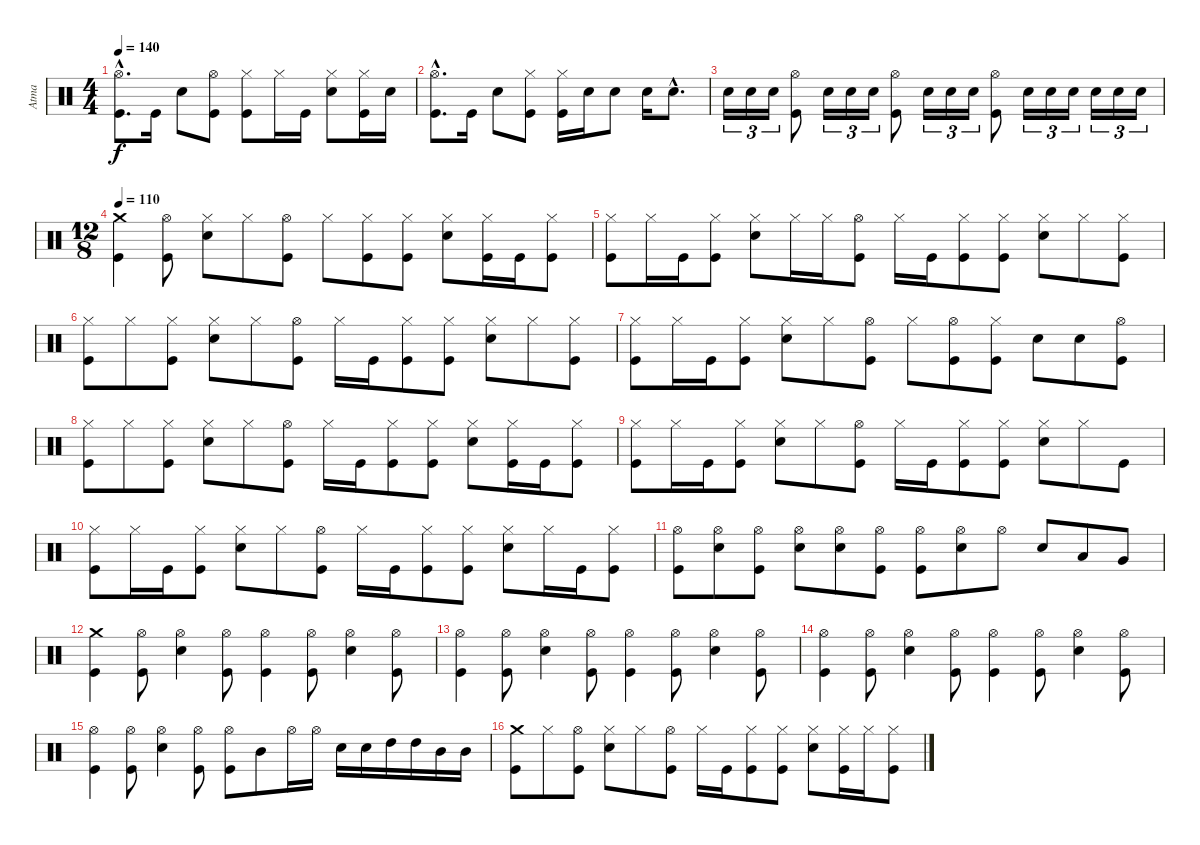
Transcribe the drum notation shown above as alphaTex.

\track ("Atma" "Atma") {instrument percussion}
\staff {score}
\articulation defaults
\ts (4 4)
\tempo 140
\clef neutral
\ks c
("Kick (hit)"{hac} "Hi-Hat (open)"{hac}).8{d dy f} "Kick (hit)".16 "Snare (hit) 2".8 ("Kick (hit)" "Hi-Hat (open)").8 ("Kick (hit)" "Hi-Hat (closed)").8 "Hi-Hat (closed)".16 "Kick (hit)".16 ("Snare (hit) 2" "Hi-Hat (closed)").8 ("Kick (hit)" "Hi-Hat (closed)").16 "Snare (hit) 2".16 |
("Kick (hit)"{hac} "Hi-Hat (open)"{hac}).8{d} "Kick (hit)".16 "Snare (hit) 2".8 ("Kick (hit)" "Hi-Hat (closed)").8 ("Kick (hit)" "Hi-Hat (closed)").16 "Snare (hit) 2".16 "Snare (hit) 2".8 "Snare (hit) 2".16 "Snare (hit) 2"{hac}.8{d} |
"Snare (hit) 2".16{tu (3 2)} "Snare (hit) 2".16{tu (3 2)} "Snare (hit) 2".16{tu (3 2)} ("Kick (hit)" "Hi-Hat (open)").8 "Snare (hit) 2".16{tu (3 2)} "Snare (hit) 2".16{tu (3 2)} "Snare (hit) 2".16{tu (3 2)} ("Kick (hit)" "Hi-Hat (open)").8 "Snare (hit) 2".16{tu (3 2)} "Snare (hit) 2".16{tu (3 2)} "Snare (hit) 2".16{tu (3 2)} ("Kick (hit)" "Hi-Hat (open)").8 "Snare (hit) 2".16{tu (3 2)} "Snare (hit) 2".16{tu (3 2)} "Snare (hit) 2".16{tu (3 2)} "Snare (hit) 2".16{tu (3 2)} "Snare (hit) 2".16{tu (3 2)} "Snare (hit) 2".16{tu (3 2)} |
\ts (12 8)
\tempo 110
("Kick (hit)" "Crash medium (hit)").4 ("Kick (hit)" "Hi-Hat (open)").8 ("Snare (hit) 2" "Hi-Hat (closed)").8 "Hi-Hat (closed)".8 ("Kick (hit)" "Hi-Hat (open)").8 "Hi-Hat (closed)".8 ("Kick (hit)" "Hi-Hat (closed)").8 ("Kick (hit)" "Hi-Hat (closed)").8 ("Snare (hit) 2" "Hi-Hat (closed)").8 ("Kick (hit)" "Hi-Hat (closed)").16 "Kick (hit)".16 ("Kick (hit)" "Hi-Hat (closed)").8 |
("Kick (hit)" "Hi-Hat (closed)").8 "Hi-Hat (closed)".16 "Kick (hit)".16 ("Kick (hit)" "Hi-Hat (closed)").8 ("Snare (hit) 2" "Hi-Hat (closed)").8 "Hi-Hat (closed)".16 "Hi-Hat (closed)".16 ("Kick (hit)" "Hi-Hat (open)").8 "Hi-Hat (closed)".16 "Kick (hit)".16 ("Kick (hit)" "Hi-Hat (closed)").8 ("Kick (hit)" "Hi-Hat (closed)").8 ("Snare (hit) 2" "Hi-Hat (closed)").8 "Hi-Hat (closed)".8 ("Kick (hit)" "Hi-Hat (closed)").8 |
("Kick (hit)" "Hi-Hat (closed)").8 "Hi-Hat (closed)".8 ("Kick (hit)" "Hi-Hat (closed)").8 ("Snare (hit) 2" "Hi-Hat (closed)").8 "Hi-Hat (closed)".8 ("Kick (hit)" "Hi-Hat (open)").8 "Hi-Hat (closed)".16 "Kick (hit)".16 ("Kick (hit)" "Hi-Hat (closed)").8 ("Kick (hit)" "Hi-Hat (closed)").8 ("Snare (hit) 2" "Hi-Hat (closed)").8 "Hi-Hat (closed)".8 ("Kick (hit)" "Hi-Hat (closed)").8 |
("Kick (hit)" "Hi-Hat (closed)").8 "Hi-Hat (closed)".16 "Kick (hit)".16 ("Kick (hit)" "Hi-Hat (closed)").8 ("Snare (hit) 2" "Hi-Hat (closed)").8 "Hi-Hat (closed)".8 ("Kick (hit)" "Hi-Hat (open)").8 "Hi-Hat (closed)".8 ("Kick (hit)" "Hi-Hat (open)").8 ("Kick (hit)" "Hi-Hat (closed)").8 "Snare (hit) 2".8 "Snare (hit) 2".8 ("Kick (hit)" "Hi-Hat (open)").8 |
("Kick (hit)" "Hi-Hat (closed)").8 "Hi-Hat (closed)".8 ("Kick (hit)" "Hi-Hat (closed)").8 ("Snare (hit) 2" "Hi-Hat (closed)").8 "Hi-Hat (closed)".8 ("Kick (hit)" "Hi-Hat (open)").8 "Hi-Hat (closed)".16 "Kick (hit)".16 ("Kick (hit)" "Hi-Hat (closed)").8 ("Kick (hit)" "Hi-Hat (closed)").8 ("Snare (hit) 2" "Hi-Hat (closed)").8 ("Kick (hit)" "Hi-Hat (closed)").16 "Kick (hit)".16 ("Kick (hit)" "Hi-Hat (closed)").8 |
("Kick (hit)" "Hi-Hat (closed)").8 "Hi-Hat (closed)".16 "Kick (hit)".16 ("Kick (hit)" "Hi-Hat (closed)").8 ("Snare (hit) 2" "Hi-Hat (closed)").8 "Hi-Hat (closed)".8 ("Kick (hit)" "Hi-Hat (open)").8 "Hi-Hat (closed)".16 "Kick (hit)".16 ("Kick (hit)" "Hi-Hat (closed)").8 ("Kick (hit)" "Hi-Hat (closed)").8 ("Snare (hit) 2" "Hi-Hat (closed)").8 "Hi-Hat (closed)".8 "Kick (hit)".8 |
("Kick (hit)" "Hi-Hat (closed)").8 "Hi-Hat (closed)".16 "Kick (hit)".16 ("Kick (hit)" "Hi-Hat (closed)").8 ("Snare (hit) 2" "Hi-Hat (closed)").8 "Hi-Hat (closed)".8 ("Kick (hit)" "Hi-Hat (open)").8 "Hi-Hat (closed)".16 "Kick (hit)".16 ("Kick (hit)" "Hi-Hat (closed)").8 ("Kick (hit)" "Hi-Hat (closed)").8 ("Snare (hit) 2" "Hi-Hat (closed)").8 "Hi-Hat (closed)".16 "Kick (hit)".16 ("Kick (hit)" "Hi-Hat (closed)").8 |
("Kick (hit)" "Hi-Hat (open)").8 ("Snare (hit) 2" "Hi-Hat (open)").8 ("Kick (hit)" "Hi-Hat (open)").8 ("Snare (hit) 2" "Hi-Hat (open)").8 ("Snare (hit) 2" "Hi-Hat (open)").8 ("Kick (hit)" "Hi-Hat (open)").8 ("Kick (hit)" "Hi-Hat (open)").8 ("Snare (hit) 2" "Hi-Hat (open)").8 "Hi-Hat (open)".8 "Snare (hit) 2".8 "Low Tom (hit)".8 "Very Low Tom (hit)".8 |
("Kick (hit)" "Crash medium (hit)").4 ("Kick (hit)" "Hi-Hat (open)").8 ("Snare (hit) 2" "Hi-Hat (open)").4 ("Kick (hit)" "Hi-Hat (open)").8 ("Kick (hit)" "Hi-Hat (open)").4 ("Kick (hit)" "Hi-Hat (open)").8 ("Snare (hit) 2" "Hi-Hat (open)").4 ("Kick (hit)" "Hi-Hat (open)").8 |
("Kick (hit)" "Hi-Hat (open)").4 ("Kick (hit)" "Hi-Hat (open)").8 ("Snare (hit) 2" "Hi-Hat (open)").4 ("Kick (hit)" "Hi-Hat (open)").8 ("Kick (hit)" "Hi-Hat (open)").4 ("Kick (hit)" "Hi-Hat (open)").8 ("Snare (hit) 2" "Hi-Hat (open)").4 ("Kick (hit)" "Hi-Hat (open)").8 |
("Kick (hit)" "Hi-Hat (open)").4 ("Kick (hit)" "Hi-Hat (open)").8 ("Snare (hit) 2" "Hi-Hat (open)").4 ("Kick (hit)" "Hi-Hat (open)").8 ("Kick (hit)" "Hi-Hat (open)").4 ("Kick (hit)" "Hi-Hat (open)").8 ("Snare (hit) 2" "Hi-Hat (open)").4 ("Kick (hit)" "Hi-Hat (open)").8 |
("Kick (hit)" "Hi-Hat (open)").4 ("Kick (hit)" "Hi-Hat (open)").8 ("Snare (hit) 2" "Hi-Hat (open)").4 ("Kick (hit)" "Hi-Hat (open)").8 ("Kick (hit)" "Hi-Hat (open)").8 "Mid Tom (hit)".8 "Hi-Hat (open)".16 "Hi-Hat (open)".16 "Snare (hit) 2".16 "Snare (hit) 2".16 "High Tom (hit)".16 "High Tom (hit)".16 "Mid Tom (hit)".16 "Mid Tom (hit)".16 |
("Kick (hit)" "Crash medium (hit)").8 "Hi-Hat (closed)".8 ("Kick (hit)" "Hi-Hat (open)").8 ("Snare (hit) 2" "Hi-Hat (closed)").8 "Hi-Hat (closed)".8 ("Kick (hit)" "Hi-Hat (open)").8 "Hi-Hat (closed)".16 "Kick (hit)".16 ("Kick (hit)" "Hi-Hat (closed)").8 ("Kick (hit)" "Hi-Hat (closed)").8 ("Snare (hit) 2" "Hi-Hat (closed)").8 ("Kick (hit)" "Hi-Hat (closed)").16 "Hi-Hat (closed)".16 ("Kick (hit)" "Hi-Hat (closed)").8
